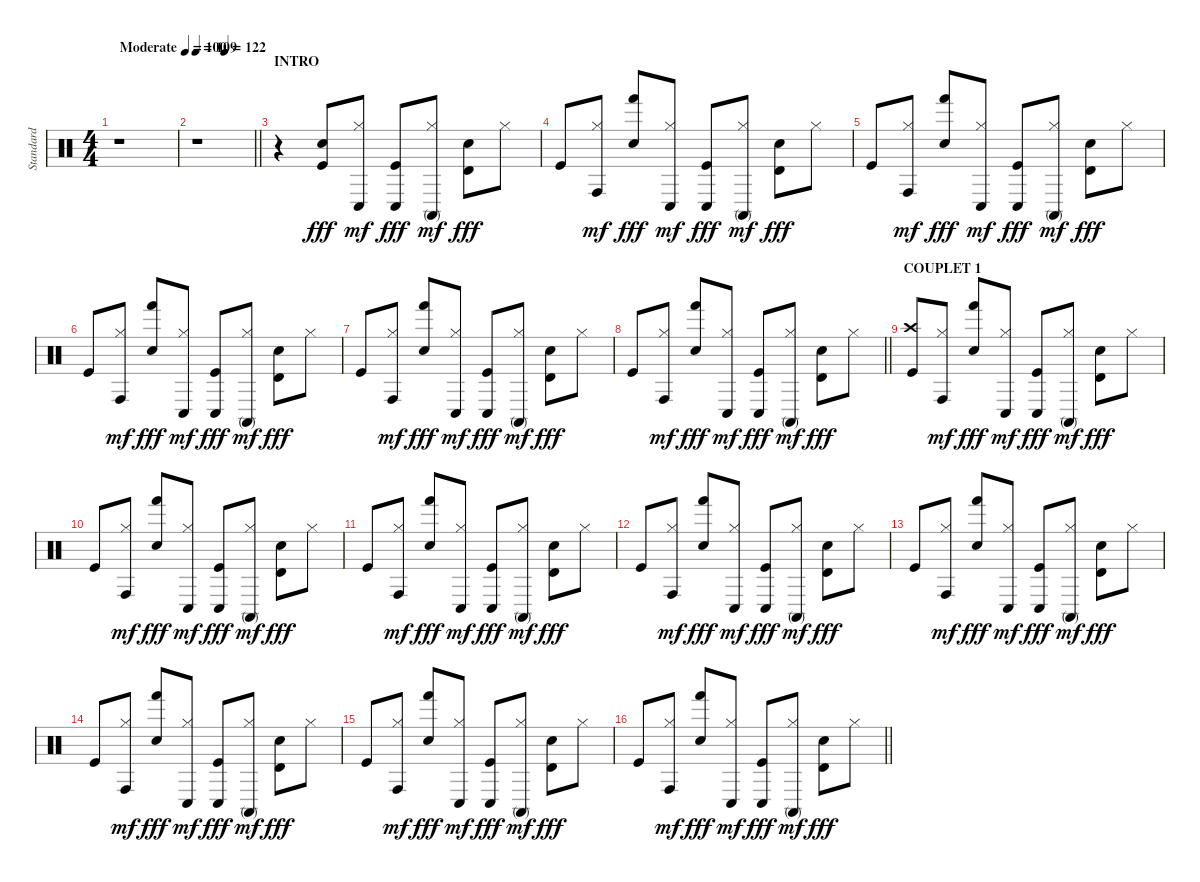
\track ("Standard" "Standard") {instrument percussion}
\staff {score}
\articulation defaults
\ts (4 4)
\tempo (100 "Moderate")
\clef neutral
\ks c
r.1{dy fff} |
\tempo 109
\tempo (122 0.5)
\barLineRight lightlight
r.1 |
\section ("" "INTRO")
r.4 ("Kick (hit)" "Electric Snare (hit)").8 ("Hi-Hat (closed)" "Conga low (hit)").8{dy mf} ("Kick (hit)" "Conga low (hit)").8{dy fff} ("Hi-Hat (closed)" "Conga high (mute)").8{dy mf} ("Electric Snare (hit)" "Timbale high (hit)").8{dy fff} "Hi-Hat (closed)".8 |
"Kick (hit)".8 ("Hi-Hat (closed)" "Conga high (hit)").8{dy mf} ("Electric Snare (hit)" "Hand (hit)").8{dy fff} ("Hi-Hat (closed)" "Conga low (hit)").8{dy mf} ("Kick (hit)" "Conga low (hit)").8{dy fff} ("Hi-Hat (closed)" "Conga high (mute)").8{dy mf} ("Electric Snare (hit)" "Timbale high (hit)").8{dy fff} "Hi-Hat (closed)".8 |
"Kick (hit)".8 ("Hi-Hat (closed)" "Conga high (hit)").8{dy mf} ("Electric Snare (hit)" "Hand (hit)").8{dy fff} ("Hi-Hat (closed)" "Conga low (hit)").8{dy mf} ("Kick (hit)" "Conga low (hit)").8{dy fff} ("Hi-Hat (closed)" "Conga high (mute)").8{dy mf} ("Electric Snare (hit)" "Timbale high (hit)").8{dy fff} "Hi-Hat (closed)".8 |
"Kick (hit)".8 ("Hi-Hat (closed)" "Conga high (hit)").8{dy mf} ("Electric Snare (hit)" "Hand (hit)").8{dy fff} ("Hi-Hat (closed)" "Conga low (hit)").8{dy mf} ("Kick (hit)" "Conga low (hit)").8{dy fff} ("Hi-Hat (closed)" "Conga high (mute)").8{dy mf} ("Electric Snare (hit)" "Timbale high (hit)").8{dy fff} "Hi-Hat (closed)".8 |
"Kick (hit)".8 ("Hi-Hat (closed)" "Conga high (hit)").8{dy mf} ("Electric Snare (hit)" "Hand (hit)").8{dy fff} ("Hi-Hat (closed)" "Conga low (hit)").8{dy mf} ("Kick (hit)" "Conga low (hit)").8{dy fff} ("Hi-Hat (closed)" "Conga high (mute)").8{dy mf} ("Electric Snare (hit)" "Timbale high (hit)").8{dy fff} "Hi-Hat (closed)".8 |
\barLineRight lightlight "Kick (hit)".8
("Hi-Hat (closed)" "Conga high (hit)").8{dy mf} ("Electric Snare (hit)" "Hand (hit)").8{dy fff} ("Hi-Hat (closed)" "Conga low (hit)").8{dy mf} ("Kick (hit)" "Conga low (hit)").8{dy fff} ("Hi-Hat (closed)" "Conga high (mute)").8{dy mf} ("Electric Snare (hit)" "Timbale high (hit)").8{dy fff} "Hi-Hat (closed)".8 |
\section ("" "COUPLET 1")
("Kick (hit)" "Crash high (hit)").8 ("Hi-Hat (closed)" "Conga high (hit)").8{dy mf} ("Electric Snare (hit)" "Hand (hit)").8{dy fff} ("Hi-Hat (closed)" "Conga low (hit)").8{dy mf} ("Kick (hit)" "Conga low (hit)").8{dy fff} ("Hi-Hat (closed)" "Conga high (mute)").8{dy mf} ("Electric Snare (hit)" "Timbale high (hit)").8{dy fff} "Hi-Hat (closed)".8 |
"Kick (hit)".8 ("Hi-Hat (closed)" "Conga high (hit)").8{dy mf} ("Electric Snare (hit)" "Hand (hit)").8{dy fff} ("Hi-Hat (closed)" "Conga low (hit)").8{dy mf} ("Kick (hit)" "Conga low (hit)").8{dy fff} ("Hi-Hat (closed)" "Conga high (mute)").8{dy mf} ("Electric Snare (hit)" "Timbale high (hit)").8{dy fff} "Hi-Hat (closed)".8 |
"Kick (hit)".8 ("Hi-Hat (closed)" "Conga high (hit)").8{dy mf} ("Electric Snare (hit)" "Hand (hit)").8{dy fff} ("Hi-Hat (closed)" "Conga low (hit)").8{dy mf} ("Kick (hit)" "Conga low (hit)").8{dy fff} ("Hi-Hat (closed)" "Conga high (mute)").8{dy mf} ("Electric Snare (hit)" "Timbale high (hit)").8{dy fff} "Hi-Hat (closed)".8 |
"Kick (hit)".8 ("Hi-Hat (closed)" "Conga high (hit)").8{dy mf} ("Electric Snare (hit)" "Hand (hit)").8{dy fff} ("Hi-Hat (closed)" "Conga low (hit)").8{dy mf} ("Kick (hit)" "Conga low (hit)").8{dy fff} ("Hi-Hat (closed)" "Conga high (mute)").8{dy mf} ("Electric Snare (hit)" "Timbale high (hit)").8{dy fff} "Hi-Hat (closed)".8 |
"Kick (hit)".8 ("Hi-Hat (closed)" "Conga high (hit)").8{dy mf} ("Electric Snare (hit)" "Hand (hit)").8{dy fff} ("Hi-Hat (closed)" "Conga low (hit)").8{dy mf} ("Kick (hit)" "Conga low (hit)").8{dy fff} ("Hi-Hat (closed)" "Conga high (mute)").8{dy mf} ("Electric Snare (hit)" "Timbale high (hit)").8{dy fff} "Hi-Hat (closed)".8 |
"Kick (hit)".8 ("Hi-Hat (closed)" "Conga high (hit)").8{dy mf} ("Electric Snare (hit)" "Hand (hit)").8{dy fff} ("Hi-Hat (closed)" "Conga low (hit)").8{dy mf} ("Kick (hit)" "Conga low (hit)").8{dy fff} ("Hi-Hat (closed)" "Conga high (mute)").8{dy mf} ("Electric Snare (hit)" "Timbale high (hit)").8{dy fff} "Hi-Hat (closed)".8 |
"Kick (hit)".8 ("Hi-Hat (closed)" "Conga high (hit)").8{dy mf} ("Electric Snare (hit)" "Hand (hit)").8{dy fff} ("Hi-Hat (closed)" "Conga low (hit)").8{dy mf} ("Kick (hit)" "Conga low (hit)").8{dy fff} ("Hi-Hat (closed)" "Conga high (mute)").8{dy mf} ("Electric Snare (hit)" "Timbale high (hit)").8{dy fff} "Hi-Hat (closed)".8 |
\barLineRight lightlight "Kick (hit)".8
("Hi-Hat (closed)" "Conga high (hit)").8{dy mf} ("Electric Snare (hit)" "Hand (hit)").8{dy fff} ("Hi-Hat (closed)" "Conga low (hit)").8{dy mf} ("Kick (hit)" "Conga low (hit)").8{dy fff} ("Hi-Hat (closed)" "Conga high (mute)").8{dy mf} ("Electric Snare (hit)" "Timbale high (hit)").8{dy fff} "Hi-Hat (closed)".8
